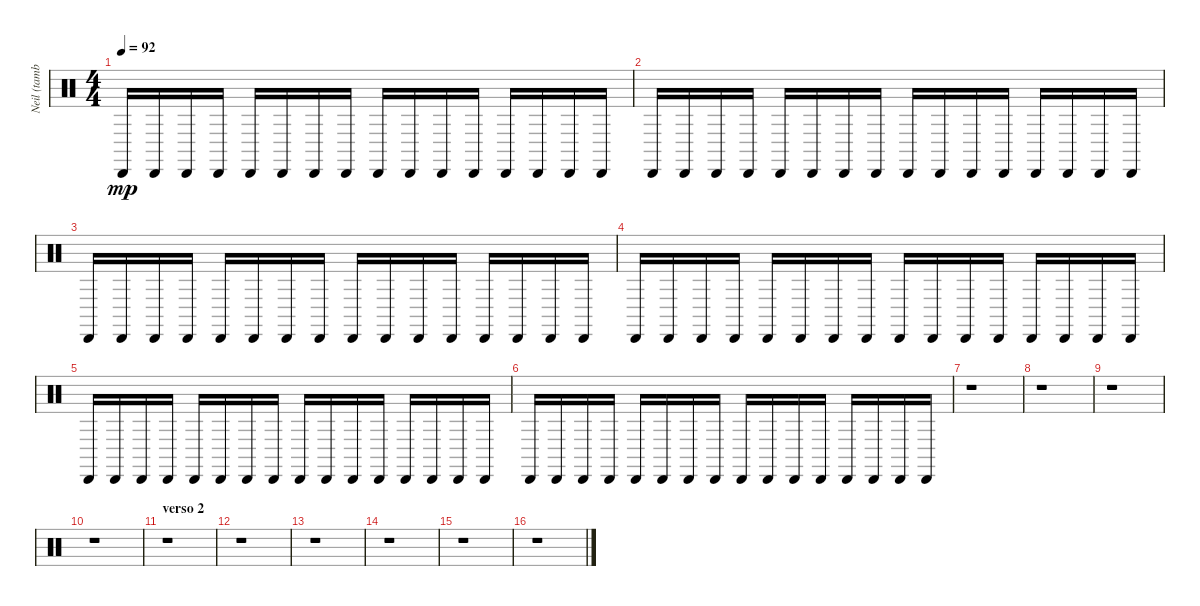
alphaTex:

\track ("Neil (tambourine)" "Neil (tamb") {instrument percussion}
\staff {score}
\articulation defaults
\ts (4 4)
\tempo 92
\clef neutral
\ks c "Cabasa (hit)".16{dy mp} "Cabasa (hit)".16 "Cabasa (hit)".16 "Cabasa (hit)".16 "Cabasa (hit)".16 "Cabasa (hit)".16 "Cabasa (hit)".16 "Cabasa (hit)".16 "Cabasa (hit)".16 "Cabasa (hit)".16 "Cabasa (hit)".16 "Cabasa (hit)".16 "Cabasa (hit)".16 "Cabasa (hit)".16 "Cabasa (hit)".16 "Cabasa (hit)".16
|
"Cabasa (hit)".16 "Cabasa (hit)".16 "Cabasa (hit)".16 "Cabasa (hit)".16 "Cabasa (hit)".16 "Cabasa (hit)".16 "Cabasa (hit)".16 "Cabasa (hit)".16 "Cabasa (hit)".16 "Cabasa (hit)".16 "Cabasa (hit)".16 "Cabasa (hit)".16 "Cabasa (hit)".16 "Cabasa (hit)".16 "Cabasa (hit)".16 "Cabasa (hit)".16 |
"Cabasa (hit)".16 "Cabasa (hit)".16 "Cabasa (hit)".16 "Cabasa (hit)".16 "Cabasa (hit)".16 "Cabasa (hit)".16 "Cabasa (hit)".16 "Cabasa (hit)".16 "Cabasa (hit)".16 "Cabasa (hit)".16 "Cabasa (hit)".16 "Cabasa (hit)".16 "Cabasa (hit)".16 "Cabasa (hit)".16 "Cabasa (hit)".16 "Cabasa (hit)".16 |
"Cabasa (hit)".16 "Cabasa (hit)".16 "Cabasa (hit)".16 "Cabasa (hit)".16 "Cabasa (hit)".16 "Cabasa (hit)".16 "Cabasa (hit)".16 "Cabasa (hit)".16 "Cabasa (hit)".16 "Cabasa (hit)".16 "Cabasa (hit)".16 "Cabasa (hit)".16 "Cabasa (hit)".16 "Cabasa (hit)".16 "Cabasa (hit)".16 "Cabasa (hit)".16 |
"Cabasa (hit)".16 "Cabasa (hit)".16 "Cabasa (hit)".16 "Cabasa (hit)".16 "Cabasa (hit)".16 "Cabasa (hit)".16 "Cabasa (hit)".16 "Cabasa (hit)".16 "Cabasa (hit)".16 "Cabasa (hit)".16 "Cabasa (hit)".16 "Cabasa (hit)".16 "Cabasa (hit)".16 "Cabasa (hit)".16 "Cabasa (hit)".16 "Cabasa (hit)".16 |
"Cabasa (hit)".16 "Cabasa (hit)".16 "Cabasa (hit)".16 "Cabasa (hit)".16 "Cabasa (hit)".16 "Cabasa (hit)".16 "Cabasa (hit)".16 "Cabasa (hit)".16 "Cabasa (hit)".16 "Cabasa (hit)".16 "Cabasa (hit)".16 "Cabasa (hit)".16 "Cabasa (hit)".16 "Cabasa (hit)".16 "Cabasa (hit)".16 "Cabasa (hit)".16 |
r.1 |
r.1 |
r.1 |
r.1 |
\section ("" "verso 2")
r.1 |
r.1 |
r.1 |
r.1 |
r.1 |
r.1
